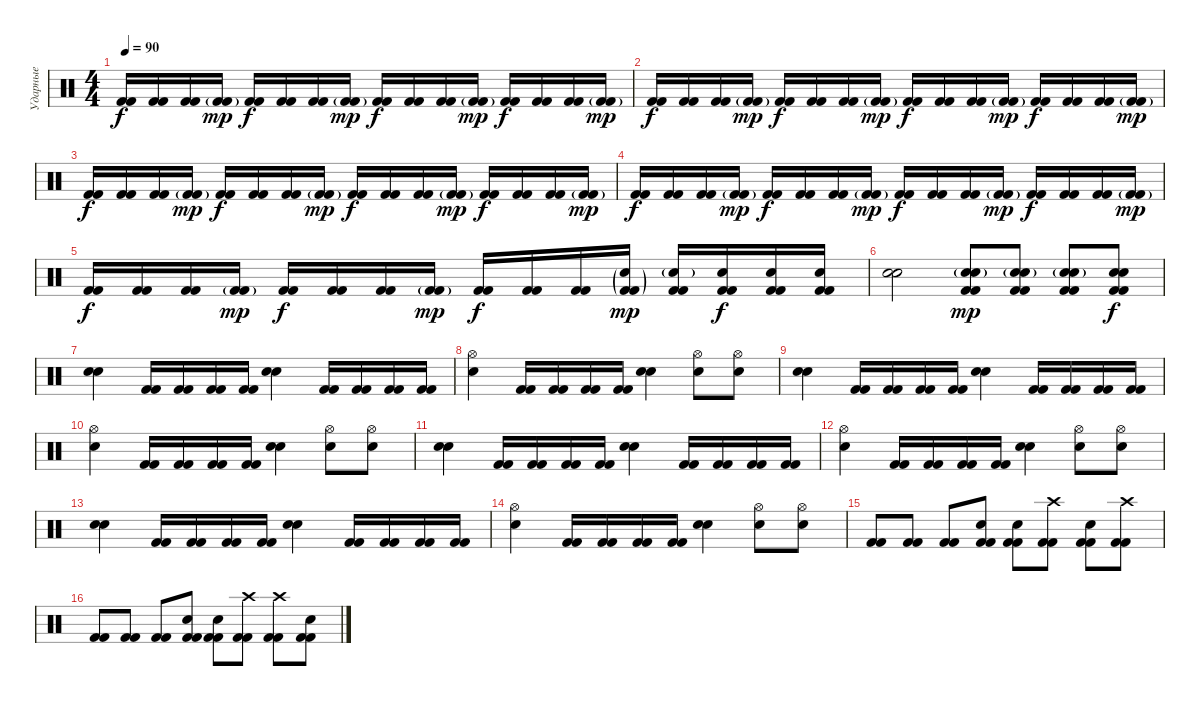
\track ("Ударные" "Ударные") {instrument percussion}
\staff {score}
\articulation defaults
\ts (4 4)
\tempo 90
\clef neutral
\ks c
("Kick (hit) 2" "Kick (hit) 2").16{dy f} ("Kick (hit) 2" "Kick (hit) 2").16 ("Kick (hit) 2" "Kick (hit) 2").16 ("Kick (hit) 2"{g} "Kick (hit) 2"{g}).16{dy mp} ("Kick (hit) 2" "Kick (hit) 2").16{dy f} ("Kick (hit) 2" "Kick (hit) 2").16 ("Kick (hit) 2" "Kick (hit) 2").16 ("Kick (hit) 2"{g} "Kick (hit) 2"{g}).16{dy mp} ("Kick (hit) 2" "Kick (hit) 2").16{dy f} ("Kick (hit) 2" "Kick (hit) 2").16 ("Kick (hit) 2" "Kick (hit) 2").16 ("Kick (hit) 2"{g} "Kick (hit) 2"{g}).16{dy mp} ("Kick (hit) 2" "Kick (hit) 2").16{dy f} ("Kick (hit) 2" "Kick (hit) 2").16 ("Kick (hit) 2" "Kick (hit) 2").16 ("Kick (hit) 2"{g} "Kick (hit) 2"{g}).16{dy mp} |
("Kick (hit) 2" "Kick (hit) 2").16{dy f} ("Kick (hit) 2" "Kick (hit) 2").16 ("Kick (hit) 2" "Kick (hit) 2").16 ("Kick (hit) 2"{g} "Kick (hit) 2"{g}).16{dy mp} ("Kick (hit) 2" "Kick (hit) 2").16{dy f} ("Kick (hit) 2" "Kick (hit) 2").16 ("Kick (hit) 2" "Kick (hit) 2").16 ("Kick (hit) 2"{g} "Kick (hit) 2"{g}).16{dy mp} ("Kick (hit) 2" "Kick (hit) 2").16{dy f} ("Kick (hit) 2" "Kick (hit) 2").16 ("Kick (hit) 2" "Kick (hit) 2").16 ("Kick (hit) 2"{g} "Kick (hit) 2"{g}).16{dy mp} ("Kick (hit) 2" "Kick (hit) 2").16{dy f} ("Kick (hit) 2" "Kick (hit) 2").16 ("Kick (hit) 2" "Kick (hit) 2").16 ("Kick (hit) 2"{g} "Kick (hit) 2"{g}).16{dy mp} |
("Kick (hit) 2" "Kick (hit) 2").16{dy f} ("Kick (hit) 2" "Kick (hit) 2").16 ("Kick (hit) 2" "Kick (hit) 2").16 ("Kick (hit) 2"{g} "Kick (hit) 2"{g}).16{dy mp} ("Kick (hit) 2" "Kick (hit) 2").16{dy f} ("Kick (hit) 2" "Kick (hit) 2").16 ("Kick (hit) 2" "Kick (hit) 2").16 ("Kick (hit) 2"{g} "Kick (hit) 2"{g}).16{dy mp} ("Kick (hit) 2" "Kick (hit) 2").16{dy f} ("Kick (hit) 2" "Kick (hit) 2").16 ("Kick (hit) 2" "Kick (hit) 2").16 ("Kick (hit) 2"{g} "Kick (hit) 2"{g}).16{dy mp} ("Kick (hit) 2" "Kick (hit) 2").16{dy f} ("Kick (hit) 2" "Kick (hit) 2").16 ("Kick (hit) 2" "Kick (hit) 2").16 ("Kick (hit) 2"{g} "Kick (hit) 2"{g}).16{dy mp} |
("Kick (hit) 2" "Kick (hit) 2").16{dy f} ("Kick (hit) 2" "Kick (hit) 2").16 ("Kick (hit) 2" "Kick (hit) 2").16 ("Kick (hit) 2"{g} "Kick (hit) 2"{g}).16{dy mp} ("Kick (hit) 2" "Kick (hit) 2").16{dy f} ("Kick (hit) 2" "Kick (hit) 2").16 ("Kick (hit) 2" "Kick (hit) 2").16 ("Kick (hit) 2"{g} "Kick (hit) 2"{g}).16{dy mp} ("Kick (hit) 2" "Kick (hit) 2").16{dy f} ("Kick (hit) 2" "Kick (hit) 2").16 ("Kick (hit) 2" "Kick (hit) 2").16 ("Kick (hit) 2"{g} "Kick (hit) 2"{g}).16{dy mp} ("Kick (hit) 2" "Kick (hit) 2").16{dy f} ("Kick (hit) 2" "Kick (hit) 2").16 ("Kick (hit) 2" "Kick (hit) 2").16 ("Kick (hit) 2"{g} "Kick (hit) 2"{g}).16{dy mp} |
("Kick (hit) 2" "Kick (hit) 2").16{dy f} ("Kick (hit) 2" "Kick (hit) 2").16 ("Kick (hit) 2" "Kick (hit) 2").16 ("Kick (hit) 2"{g} "Kick (hit) 2"{g}).16{dy mp} ("Kick (hit) 2" "Kick (hit) 2").16{dy f} ("Kick (hit) 2" "Kick (hit) 2").16 ("Kick (hit) 2" "Kick (hit) 2").16 ("Kick (hit) 2"{g} "Kick (hit) 2"{g}).16{dy mp} ("Kick (hit) 2" "Kick (hit) 2").16{dy f} ("Kick (hit) 2" "Kick (hit) 2").16 ("Kick (hit) 2" "Kick (hit) 2").16 ("Electric Snare (hit)"{g} "Kick (hit) 2"{g} "Kick (hit) 2"{g}).16{dy mp} ("Electric Snare (hit)"{g} "Kick (hit) 2" "Kick (hit) 2").16 ("Electric Snare (hit)" "Kick (hit) 2" "Kick (hit) 2").16{dy f} ("Electric Snare (hit)" "Kick (hit) 2" "Kick (hit) 2").16 ("Electric Snare (hit)" "Kick (hit) 2" "Kick (hit) 2").16 |
("Electric Snare (hit)" "Electric Snare (hit)").2 ("Electric Snare (hit)"{g} "Electric Snare (hit)"{g} "Kick (hit) 2" "Kick (hit) 2").8{dy mp} ("Electric Snare (hit)"{g} "Electric Snare (hit)"{g} "Kick (hit) 2" "Kick (hit) 2").8 ("Electric Snare (hit)"{g} "Electric Snare (hit)" "Kick (hit) 2" "Kick (hit) 2").8 ("Electric Snare (hit)" "Electric Snare (hit)" "Kick (hit) 2" "Kick (hit) 2").8{dy f} |
("Electric Snare (hit)" "Electric Snare (hit)").4 ("Kick (hit) 2" "Kick (hit) 2").16 ("Kick (hit) 2" "Kick (hit) 2").16 ("Kick (hit) 2" "Kick (hit) 2").16 ("Kick (hit) 2" "Kick (hit) 2").16 ("Electric Snare (hit)" "Electric Snare (hit)").4 ("Kick (hit) 2" "Kick (hit) 2").16 ("Kick (hit) 2" "Kick (hit) 2").16 ("Kick (hit) 2" "Kick (hit) 2").16 ("Kick (hit) 2" "Kick (hit) 2").16 |
("Hi-Hat (open)" "Electric Snare (hit)").4 ("Kick (hit) 2" "Kick (hit) 2").16 ("Kick (hit) 2" "Kick (hit) 2").16 ("Kick (hit) 2" "Kick (hit) 2").16 ("Kick (hit) 2" "Kick (hit) 2").16 ("Electric Snare (hit)" "Electric Snare (hit)").4 ("Electric Snare (hit)" "Hi-Hat (open)").8 ("Electric Snare (hit)" "Hi-Hat (open)").8 |
("Electric Snare (hit)" "Electric Snare (hit)").4 ("Kick (hit) 2" "Kick (hit) 2").16 ("Kick (hit) 2" "Kick (hit) 2").16 ("Kick (hit) 2" "Kick (hit) 2").16 ("Kick (hit) 2" "Kick (hit) 2").16 ("Electric Snare (hit)" "Electric Snare (hit)").4 ("Kick (hit) 2" "Kick (hit) 2").16 ("Kick (hit) 2" "Kick (hit) 2").16 ("Kick (hit) 2" "Kick (hit) 2").16 ("Kick (hit) 2" "Kick (hit) 2").16 |
("Hi-Hat (open)" "Electric Snare (hit)").4 ("Kick (hit) 2" "Kick (hit) 2").16 ("Kick (hit) 2" "Kick (hit) 2").16 ("Kick (hit) 2" "Kick (hit) 2").16 ("Kick (hit) 2" "Kick (hit) 2").16 ("Electric Snare (hit)" "Electric Snare (hit)").4 ("Electric Snare (hit)" "Hi-Hat (open)").8 ("Electric Snare (hit)" "Hi-Hat (open)").8 |
("Electric Snare (hit)" "Electric Snare (hit)").4 ("Kick (hit) 2" "Kick (hit) 2").16 ("Kick (hit) 2" "Kick (hit) 2").16 ("Kick (hit) 2" "Kick (hit) 2").16 ("Kick (hit) 2" "Kick (hit) 2").16 ("Electric Snare (hit)" "Electric Snare (hit)").4 ("Kick (hit) 2" "Kick (hit) 2").16 ("Kick (hit) 2" "Kick (hit) 2").16 ("Kick (hit) 2" "Kick (hit) 2").16 ("Kick (hit) 2" "Kick (hit) 2").16 |
("Hi-Hat (open)" "Electric Snare (hit)").4 ("Kick (hit) 2" "Kick (hit) 2").16 ("Kick (hit) 2" "Kick (hit) 2").16 ("Kick (hit) 2" "Kick (hit) 2").16 ("Kick (hit) 2" "Kick (hit) 2").16 ("Electric Snare (hit)" "Electric Snare (hit)").4 ("Electric Snare (hit)" "Hi-Hat (open)").8 ("Electric Snare (hit)" "Hi-Hat (open)").8 |
("Electric Snare (hit)" "Electric Snare (hit)").4 ("Kick (hit) 2" "Kick (hit) 2").16 ("Kick (hit) 2" "Kick (hit) 2").16 ("Kick (hit) 2" "Kick (hit) 2").16 ("Kick (hit) 2" "Kick (hit) 2").16 ("Electric Snare (hit)" "Electric Snare (hit)").4 ("Kick (hit) 2" "Kick (hit) 2").16 ("Kick (hit) 2" "Kick (hit) 2").16 ("Kick (hit) 2" "Kick (hit) 2").16 ("Kick (hit) 2" "Kick (hit) 2").16 |
("Hi-Hat (open)" "Electric Snare (hit)").4 ("Kick (hit) 2" "Kick (hit) 2").16 ("Kick (hit) 2" "Kick (hit) 2").16 ("Kick (hit) 2" "Kick (hit) 2").16 ("Kick (hit) 2" "Kick (hit) 2").16 ("Electric Snare (hit)" "Electric Snare (hit)").4 ("Electric Snare (hit)" "Hi-Hat (open)").8 ("Electric Snare (hit)" "Hi-Hat (open)").8 |
("Kick (hit) 2" "Kick (hit) 2").8 ("Kick (hit) 2" "Kick (hit) 2").8 ("Kick (hit) 2" "Kick (hit) 2").8 ("Electric Snare (hit)" "Kick (hit) 2" "Kick (hit) 2").8 ("Electric Snare (hit)" "Kick (hit) 2" "Kick (hit) 2").8 ("Crash high (hit)" "Kick (hit) 2" "Kick (hit) 2").8 ("Electric Snare (hit)" "Kick (hit) 2" "Kick (hit) 2").8 ("Crash high (hit)" "Kick (hit) 2" "Kick (hit) 2").8 |
("Kick (hit) 2" "Kick (hit) 2").8 ("Kick (hit) 2" "Kick (hit) 2").8 ("Kick (hit) 2" "Kick (hit) 2").8 ("Electric Snare (hit)" "Kick (hit) 2" "Kick (hit) 2").8 ("Electric Snare (hit)" "Kick (hit) 2" "Kick (hit) 2").8 ("Crash high (hit)" "Kick (hit) 2" "Kick (hit) 2").8 ("Crash high (hit)" "Kick (hit) 2" "Kick (hit) 2").8 ("Electric Snare (hit)" "Kick (hit) 2" "Kick (hit) 2").8
